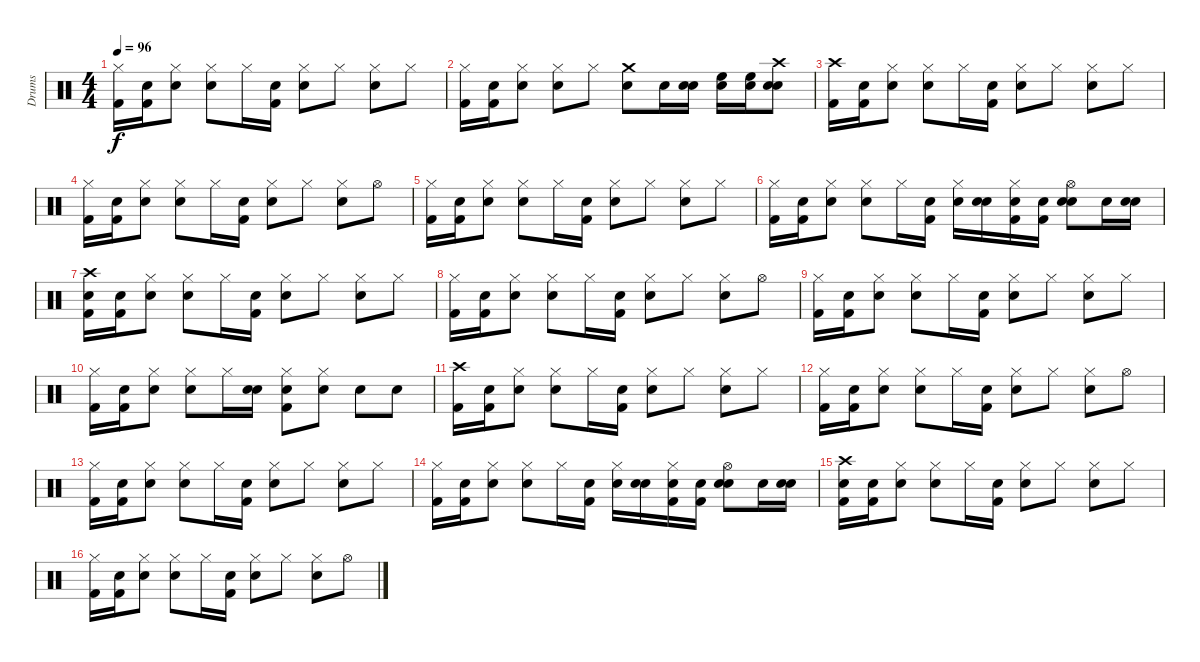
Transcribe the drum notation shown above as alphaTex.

\track ("Drums" "Drums") {instrument percussion}
\staff {score}
\articulation defaults
\ts (4 4)
\tempo 96
\clef neutral
\ks c
("Hi-Hat (closed)" "Kick (hit) 2").16{dy f} ("Snare (hit)" "Kick (hit) 2").16 ("Snare (hit)" "Hi-Hat (closed)").8 ("Snare (hit) 2" "Hi-Hat (closed)").8 "Hi-Hat (closed)".16 ("Snare (hit)" "Kick (hit) 2").16 ("Snare (hit)" "Hi-Hat (closed)").8 "Hi-Hat (closed)".8 ("Snare (hit) 2" "Hi-Hat (closed)").8 "Hi-Hat (closed)".8 |
("Hi-Hat (closed)" "Kick (hit) 2").16 ("Snare (hit)" "Kick (hit) 2").16 ("Snare (hit)" "Hi-Hat (closed)").8 ("Snare (hit) 2" "Hi-Hat (closed)").8 "Hi-Hat (closed)".8 ("Snare (hit) 2" "Crash medium (hit)").8 "Electric Snare (hit)".16 ("Snare (hit)" "Electric Snare (hit)").16 ("Snare (hit)" "High Floor Tom (hit)").16 ("Snare (hit)" "High Floor Tom (hit)").16 ("Snare (hit)" "Snare (hit) 2" "Crash high (hit)").8 |
("Crash high (hit)" "Kick (hit) 2").16 ("Snare (hit)" "Kick (hit) 2").16 ("Snare (hit)" "Hi-Hat (closed)").8 ("Snare (hit) 2" "Hi-Hat (closed)").8 "Hi-Hat (closed)".16 ("Snare (hit)" "Kick (hit) 2").16 ("Snare (hit)" "Hi-Hat (closed)").8 "Hi-Hat (closed)".8 ("Snare (hit) 2" "Hi-Hat (closed)").8 "Hi-Hat (closed)".8 |
("Hi-Hat (closed)" "Kick (hit) 2").16 ("Snare (hit)" "Kick (hit) 2").16 ("Snare (hit)" "Hi-Hat (closed)").8 ("Snare (hit) 2" "Hi-Hat (closed)").8 "Hi-Hat (closed)".16 ("Snare (hit)" "Kick (hit) 2").16 ("Snare (hit)" "Hi-Hat (closed)").8 "Hi-Hat (closed)".8 ("Snare (hit) 2" "Hi-Hat (closed)").8 "Hi-Hat (open)".8 |
("Hi-Hat (closed)" "Kick (hit) 2").16 ("Snare (hit)" "Kick (hit) 2").16 ("Snare (hit)" "Hi-Hat (closed)").8 ("Snare (hit) 2" "Hi-Hat (closed)").8 "Hi-Hat (closed)".16 ("Snare (hit)" "Kick (hit) 2").16 ("Snare (hit)" "Hi-Hat (closed)").8 "Hi-Hat (closed)".8 ("Snare (hit) 2" "Hi-Hat (closed)").8 "Hi-Hat (closed)".8 |
("Hi-Hat (closed)" "Kick (hit) 2").16 ("Snare (hit)" "Kick (hit) 2").16 ("Snare (hit)" "Hi-Hat (closed)").8 ("Snare (hit) 2" "Hi-Hat (closed)").8 "Hi-Hat (closed)".16 ("Snare (hit)" "Kick (hit) 2").16 ("Snare (hit)" "Hi-Hat (closed)").16 ("Snare (hit)" "Snare (hit) 2").16 ("Snare (hit)" "Hi-Hat (closed)" "Kick (hit) 2").16 ("Snare (hit)" "Kick (hit) 2").16 ("Snare (hit)" "Snare (hit) 2" "Hi-Hat (open)").8 "Snare (hit) 2".16 ("Snare (hit)" "Snare (hit) 2").16 |
("Snare (hit)" "Crash high (hit)" "Kick (hit) 2").16 ("Snare (hit)" "Kick (hit) 2").16 ("Snare (hit)" "Hi-Hat (closed)").8 ("Snare (hit) 2" "Hi-Hat (closed)").8 "Hi-Hat (closed)".16 ("Snare (hit)" "Kick (hit) 2").16 ("Snare (hit)" "Hi-Hat (closed)").8 "Hi-Hat (closed)".8 ("Snare (hit) 2" "Hi-Hat (closed)").8 "Hi-Hat (closed)".8 |
("Hi-Hat (closed)" "Kick (hit) 2").16 ("Snare (hit)" "Kick (hit) 2").16 ("Snare (hit)" "Hi-Hat (closed)").8 ("Snare (hit) 2" "Hi-Hat (closed)").8 "Hi-Hat (closed)".16 ("Snare (hit)" "Kick (hit) 2").16 ("Snare (hit)" "Hi-Hat (closed)").8 "Hi-Hat (closed)".8 ("Snare (hit) 2" "Hi-Hat (closed)").8 "Hi-Hat (open)".8 |
("Hi-Hat (closed)" "Kick (hit) 2").16 ("Snare (hit)" "Kick (hit) 2").16 ("Snare (hit)" "Hi-Hat (closed)").8 ("Snare (hit) 2" "Hi-Hat (closed)").8 "Hi-Hat (closed)".16 ("Snare (hit)" "Kick (hit) 2").16 ("Snare (hit)" "Hi-Hat (closed)").8 "Hi-Hat (closed)".8 ("Snare (hit) 2" "Hi-Hat (closed)").8 "Hi-Hat (closed)".8 |
("Hi-Hat (closed)" "Kick (hit) 2").16 ("Snare (hit)" "Kick (hit) 2").16 ("Snare (hit)" "Hi-Hat (closed)").8 ("Snare (hit) 2" "Hi-Hat (closed)").8 "Hi-Hat (closed)".16 ("Snare (hit)" "Snare (hit) 2").16 ("Snare (hit)" "Kick (hit) 2" "Hi-Hat (closed)").8 ("Snare (hit) 2" "Hi-Hat (closed)").8 "Snare (hit) 2".8 "Electric Snare (hit)".8 |
("Crash high (hit)" "Kick (hit) 2").16 ("Snare (hit)" "Kick (hit) 2").16 ("Snare (hit)" "Hi-Hat (closed)").8 ("Snare (hit) 2" "Hi-Hat (closed)").8 "Hi-Hat (closed)".16 ("Snare (hit)" "Kick (hit) 2").16 ("Snare (hit)" "Hi-Hat (closed)").8 "Hi-Hat (closed)".8 ("Snare (hit) 2" "Hi-Hat (closed)").8 "Hi-Hat (closed)".8 |
("Hi-Hat (closed)" "Kick (hit) 2").16 ("Snare (hit)" "Kick (hit) 2").16 ("Snare (hit)" "Hi-Hat (closed)").8 ("Snare (hit) 2" "Hi-Hat (closed)").8 "Hi-Hat (closed)".16 ("Snare (hit)" "Kick (hit) 2").16 ("Snare (hit)" "Hi-Hat (closed)").8 "Hi-Hat (closed)".8 ("Snare (hit) 2" "Hi-Hat (closed)").8 "Hi-Hat (open)".8 |
("Hi-Hat (closed)" "Kick (hit) 2").16 ("Snare (hit)" "Kick (hit) 2").16 ("Snare (hit)" "Hi-Hat (closed)").8 ("Snare (hit) 2" "Hi-Hat (closed)").8 "Hi-Hat (closed)".16 ("Snare (hit)" "Kick (hit) 2").16 ("Snare (hit)" "Hi-Hat (closed)").8 "Hi-Hat (closed)".8 ("Snare (hit) 2" "Hi-Hat (closed)").8 "Hi-Hat (closed)".8 |
("Hi-Hat (closed)" "Kick (hit) 2").16 ("Snare (hit)" "Kick (hit) 2").16 ("Snare (hit)" "Hi-Hat (closed)").8 ("Snare (hit) 2" "Hi-Hat (closed)").8 "Hi-Hat (closed)".16 ("Snare (hit)" "Kick (hit) 2").16 ("Snare (hit)" "Hi-Hat (closed)").16 ("Snare (hit)" "Snare (hit) 2").16 ("Snare (hit)" "Hi-Hat (closed)" "Kick (hit) 2").16 ("Snare (hit)" "Kick (hit) 2").16 ("Snare (hit)" "Snare (hit) 2" "Hi-Hat (open)").8 "Snare (hit) 2".16 ("Snare (hit)" "Snare (hit) 2").16 |
("Snare (hit)" "Crash high (hit)" "Kick (hit) 2").16 ("Snare (hit)" "Kick (hit) 2").16 ("Snare (hit)" "Hi-Hat (closed)").8 ("Snare (hit) 2" "Hi-Hat (closed)").8 "Hi-Hat (closed)".16 ("Snare (hit)" "Kick (hit) 2").16 ("Snare (hit)" "Hi-Hat (closed)").8 "Hi-Hat (closed)".8 ("Snare (hit) 2" "Hi-Hat (closed)").8 "Hi-Hat (closed)".8 |
("Hi-Hat (closed)" "Kick (hit) 2").16 ("Snare (hit)" "Kick (hit) 2").16 ("Snare (hit)" "Hi-Hat (closed)").8 ("Snare (hit) 2" "Hi-Hat (closed)").8 "Hi-Hat (closed)".16 ("Snare (hit)" "Kick (hit) 2").16 ("Snare (hit)" "Hi-Hat (closed)").8 "Hi-Hat (closed)".8 ("Snare (hit) 2" "Hi-Hat (closed)").8 "Hi-Hat (open)".8
